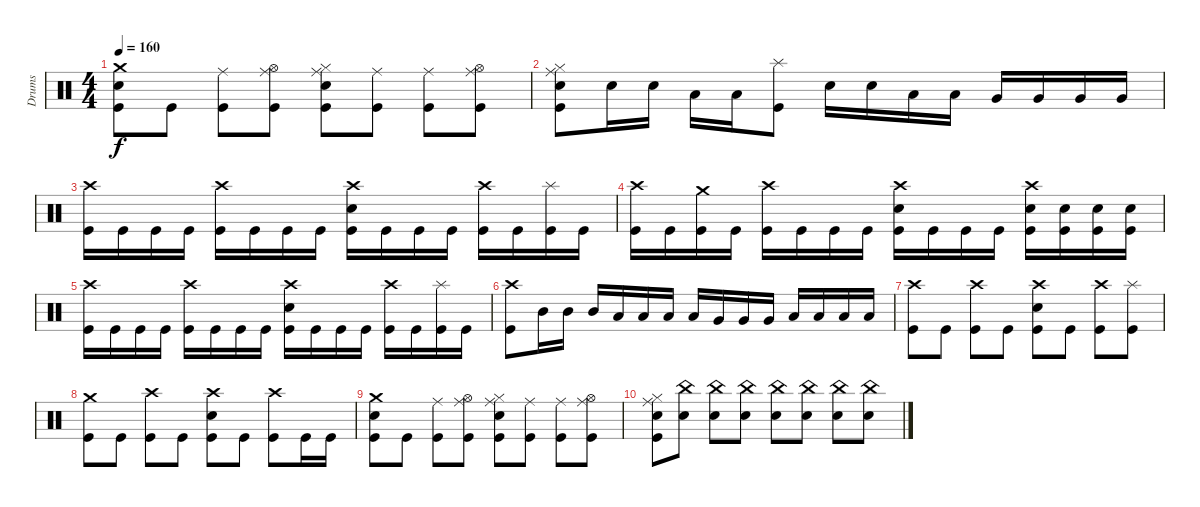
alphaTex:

\track ("Drums" "Drums") {instrument percussion}
\staff {score}
\articulation defaults
\ts (4 4)
\tempo 160
\clef neutral
\ks c
("Crash medium (hit)" "Electric Snare (hit)" "Kick (hit)").8{dy f} "Kick (hit)".8 ("Ride (middle)" "Kick (hit)").8 ("Hi-Hat (open)" "Ride (middle)" "Kick (hit)").8 ("Hi-Hat (closed)" "Ride (middle)" "Electric Snare (hit)" "Kick (hit)").8 ("Ride (middle)" "Kick (hit)").8 ("Ride (middle)" "Kick (hit)").8 ("Hi-Hat (open)" "Ride (middle)" "Kick (hit)").8 |
("Hi-Hat (closed)" "Ride (middle)" "Electric Snare (hit)" "Kick (hit)").8 "Electric Snare (hit)".16 "Electric Snare (hit)".16 "Low Tom (hit)".16 "Low Tom (hit)".16 ("Splash (hit)" "Kick (hit)").8 "Electric Snare (hit)".16 "Electric Snare (hit)".16 "Low Tom (hit)".16 "Low Tom (hit)".16 "Very Low Tom (hit)".16 "Very Low Tom (hit)".16 "Very Low Tom (hit)".16 "Very Low Tom (hit)".16 |
("Crash high (hit)" "Kick (hit)").16{volume 12} "Kick (hit)".16 "Kick (hit)".16 "Kick (hit)".16 ("Crash high (hit)" "Kick (hit)").16 "Kick (hit)".16 "Kick (hit)".16 "Kick (hit)".16 ("Crash high (hit)" "Electric Snare (hit)" "Kick (hit)").16 "Kick (hit)".16 "Kick (hit)".16 "Kick (hit)".16 ("Crash high (hit)" "Kick (hit)").16 "Kick (hit)".16 ("Splash (hit)" "Kick (hit)").16 "Kick (hit)".16 |
("Crash high (hit)" "Kick (hit)").16 "Kick (hit)".16 ("Crash medium (hit)" "Kick (hit)").16 "Kick (hit)".16 ("Crash high (hit)" "Kick (hit)").16 "Kick (hit)".16 "Kick (hit)".16 "Kick (hit)".16 ("Crash high (hit)" "Electric Snare (hit)" "Kick (hit)").16 "Kick (hit)".16 "Kick (hit)".16 "Kick (hit)".16 ("Crash high (hit)" "Electric Snare (hit)" "Kick (hit)").16 ("Electric Snare (hit)" "Kick (hit)").16 ("Electric Snare (hit)" "Kick (hit)").16 ("Electric Snare (hit)" "Kick (hit)").16 |
("Crash high (hit)" "Kick (hit)").16{volume 8} "Kick (hit)".16 "Kick (hit)".16 "Kick (hit)".16 ("Crash high (hit)" "Kick (hit)").16 "Kick (hit)".16 "Kick (hit)".16 "Kick (hit)".16 ("Crash high (hit)" "Electric Snare (hit)" "Kick (hit)").16 "Kick (hit)".16 "Kick (hit)".16 "Kick (hit)".16 ("Crash high (hit)" "Kick (hit)").16 "Kick (hit)".16 ("Splash (hit)" "Kick (hit)").16 "Kick (hit)".16 |
("Crash high (hit)" "Kick (hit)").8 "Mid Tom (hit)".16 "Mid Tom (hit)".16 "Mid Tom (hit)".16 "Low Tom (hit)".16 "Low Tom (hit)".16 "Low Tom (hit)".16 "Low Tom (hit)".16 "Very Low Tom (hit)".16 "Very Low Tom (hit)".16 "Very Low Tom (hit)".16 "Low Floor Tom (hit)".16 "Low Floor Tom (hit)".16 "Low Floor Tom (hit)".16 "Low Floor Tom (hit)".16 |
("Crash high (hit)" "Kick (hit)").8{volume 4} "Kick (hit)".8 ("Crash high (hit)" "Kick (hit)").8 "Kick (hit)".8 ("Crash high (hit)" "Electric Snare (hit)" "Kick (hit)").8 "Kick (hit)".8 ("Crash high (hit)" "Kick (hit)").8 ("Splash (hit)" "Kick (hit)").8 |
("Crash medium (hit)" "Kick (hit)").8 "Kick (hit)".8 ("Crash high (hit)" "Kick (hit)").8 "Kick (hit)".8 ("Crash high (hit)" "Electric Snare (hit)" "Kick (hit)").8 "Kick (hit)".8 ("Crash high (hit)" "Kick (hit)").8 "Kick (hit)".16 "Kick (hit)".16 |
("Crash medium (hit)" "Electric Snare (hit)" "Kick (hit)").8{volume 0} "Kick (hit)".8 ("Ride (middle)" "Kick (hit)").8 ("Hi-Hat (open)" "Ride (middle)" "Kick (hit)").8 ("Hi-Hat (closed)" "Ride (middle)" "Electric Snare (hit)" "Kick (hit)").8 ("Ride (middle)" "Kick (hit)").8 ("Ride (middle)" "Kick (hit)").8 ("Hi-Hat (open)" "Ride (middle)" "Kick (hit)").8 |
("Hi-Hat (closed)" "Ride (middle)" "Electric Snare (hit)" "Kick (hit)").8 ("China (hit)" "Electric Snare (hit)").8 ("China (hit)" "Electric Snare (hit)").8 ("China (hit)" "Electric Snare (hit)").8 ("China (hit)" "Electric Snare (hit)").8 ("China (hit)" "Electric Snare (hit)").8 ("China (hit)" "Electric Snare (hit)").8 ("China (hit)" "Electric Snare (hit)").8
